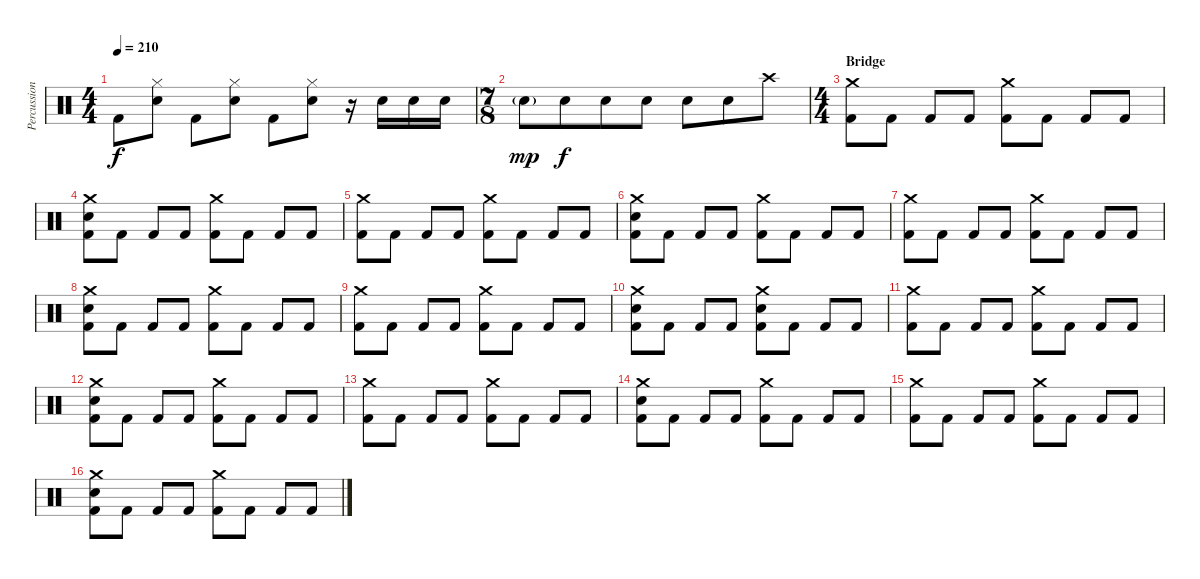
\track ("Percussion" "Percussion") {instrument percussion}
\staff {score}
\articulation defaults
\ts (4 4)
\tempo 210
\clef neutral
\ks c "Kick (hit) 2".8{dy f}
("Hi-Hat (closed)" "Electric Snare (hit)").8 "Kick (hit) 2".8 ("Hi-Hat (closed)" "Electric Snare (hit)").8 "Kick (hit) 2".8 ("Hi-Hat (closed)" "Electric Snare (hit)").8 r.16 "Electric Snare (hit)".16 "Electric Snare (hit)".16 "Electric Snare (hit)".16 |
\ts (7 8)
"Electric Snare (hit)"{g}.8{dy mp} "Electric Snare (hit)".8{dy f} "Electric Snare (hit)".8 "Electric Snare (hit)".8 "Electric Snare (hit)".8 "Electric Snare (hit)".8 "Crash high (hit)".8 |
\ts (4 4)
\section ("" "Bridge")
("Crash medium (hit)" "Kick (hit) 2").8 "Kick (hit) 2".8 "Kick (hit) 2".8 "Kick (hit) 2".8 ("Crash medium (hit)" "Kick (hit) 2").8 "Kick (hit) 2".8 "Kick (hit) 2".8 "Kick (hit) 2".8 |
("Crash medium (hit)" "Electric Snare (hit)" "Kick (hit) 2").8 "Kick (hit) 2".8 "Kick (hit) 2".8 "Kick (hit) 2".8 ("Crash medium (hit)" "Kick (hit) 2").8 "Kick (hit) 2".8 "Kick (hit) 2".8 "Kick (hit) 2".8 |
("Crash medium (hit)" "Kick (hit) 2").8 "Kick (hit) 2".8 "Kick (hit) 2".8 "Kick (hit) 2".8 ("Crash medium (hit)" "Kick (hit) 2").8 "Kick (hit) 2".8 "Kick (hit) 2".8 "Kick (hit) 2".8 |
("Crash medium (hit)" "Electric Snare (hit)" "Kick (hit) 2").8 "Kick (hit) 2".8 "Kick (hit) 2".8 "Kick (hit) 2".8 ("Crash medium (hit)" "Kick (hit) 2").8 "Kick (hit) 2".8 "Kick (hit) 2".8 "Kick (hit) 2".8 |
("Crash medium (hit)" "Kick (hit) 2").8 "Kick (hit) 2".8 "Kick (hit) 2".8 "Kick (hit) 2".8 ("Crash medium (hit)" "Kick (hit) 2").8 "Kick (hit) 2".8 "Kick (hit) 2".8 "Kick (hit) 2".8 |
("Crash medium (hit)" "Electric Snare (hit)" "Kick (hit) 2").8 "Kick (hit) 2".8 "Kick (hit) 2".8 "Kick (hit) 2".8 ("Crash medium (hit)" "Kick (hit) 2").8 "Kick (hit) 2".8 "Kick (hit) 2".8 "Kick (hit) 2".8 |
("Crash medium (hit)" "Kick (hit) 2").8 "Kick (hit) 2".8 "Kick (hit) 2".8 "Kick (hit) 2".8 ("Crash medium (hit)" "Kick (hit) 2").8 "Kick (hit) 2".8 "Kick (hit) 2".8 "Kick (hit) 2".8 |
("Crash medium (hit)" "Electric Snare (hit)" "Kick (hit) 2").8 "Kick (hit) 2".8 "Kick (hit) 2".8 "Kick (hit) 2".8 ("Crash medium (hit)" "Electric Snare (hit)" "Kick (hit) 2").8 "Kick (hit) 2".8 "Kick (hit) 2".8 "Kick (hit) 2".8 |
("Crash medium (hit)" "Kick (hit) 2").8 "Kick (hit) 2".8 "Kick (hit) 2".8 "Kick (hit) 2".8 ("Crash medium (hit)" "Kick (hit) 2").8 "Kick (hit) 2".8 "Kick (hit) 2".8 "Kick (hit) 2".8 |
("Crash medium (hit)" "Electric Snare (hit)" "Kick (hit) 2").8 "Kick (hit) 2".8 "Kick (hit) 2".8 "Kick (hit) 2".8 ("Crash medium (hit)" "Kick (hit) 2").8 "Kick (hit) 2".8 "Kick (hit) 2".8 "Kick (hit) 2".8 |
("Crash medium (hit)" "Kick (hit) 2").8 "Kick (hit) 2".8 "Kick (hit) 2".8 "Kick (hit) 2".8 ("Crash medium (hit)" "Kick (hit) 2").8 "Kick (hit) 2".8 "Kick (hit) 2".8 "Kick (hit) 2".8 |
("Crash medium (hit)" "Electric Snare (hit)" "Kick (hit) 2").8 "Kick (hit) 2".8 "Kick (hit) 2".8 "Kick (hit) 2".8 ("Crash medium (hit)" "Kick (hit) 2").8 "Kick (hit) 2".8 "Kick (hit) 2".8 "Kick (hit) 2".8 |
("Crash medium (hit)" "Kick (hit) 2").8 "Kick (hit) 2".8 "Kick (hit) 2".8 "Kick (hit) 2".8 ("Crash medium (hit)" "Kick (hit) 2").8 "Kick (hit) 2".8 "Kick (hit) 2".8 "Kick (hit) 2".8 |
("Crash medium (hit)" "Electric Snare (hit)" "Kick (hit) 2").8 "Kick (hit) 2".8 "Kick (hit) 2".8 "Kick (hit) 2".8 ("Crash medium (hit)" "Kick (hit) 2").8 "Kick (hit) 2".8 "Kick (hit) 2".8 "Kick (hit) 2".8
